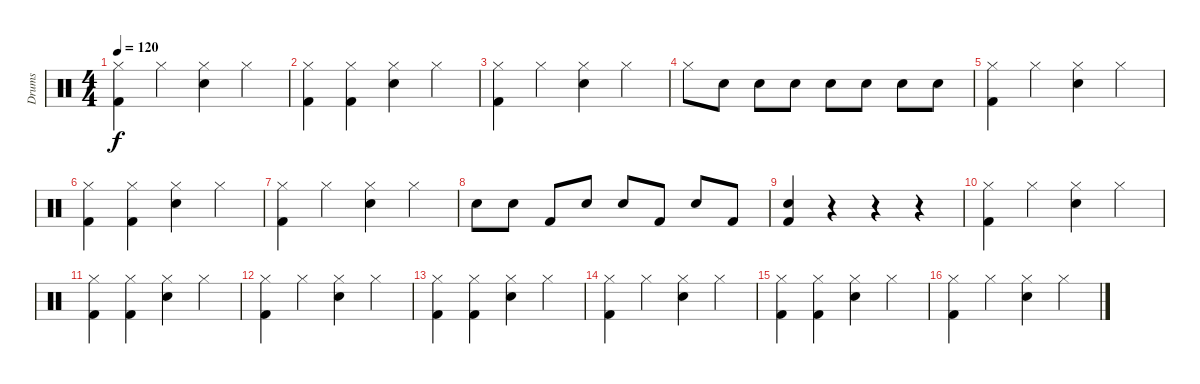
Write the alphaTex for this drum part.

\track ("Drums" "Drums") {instrument percussion}
\staff {score}
\articulation defaults
\ts (4 4)
\tempo 120
\clef neutral
\ks c
("Kick (hit) 2" "Hi-Hat (closed)").4{dy f} "Hi-Hat (closed)".4 ("Snare (hit) 2" "Hi-Hat (closed)").4 "Hi-Hat (closed)".4 |
("Kick (hit) 2" "Hi-Hat (closed)").4 ("Kick (hit) 2" "Hi-Hat (closed)").4 ("Snare (hit) 2" "Hi-Hat (closed)").4 "Hi-Hat (closed)".4 |
("Kick (hit) 2" "Hi-Hat (closed)").4 "Hi-Hat (closed)".4 ("Snare (hit) 2" "Hi-Hat (closed)").4 "Hi-Hat (closed)".4 |
"Hi-Hat (closed)".8 "Snare (hit) 2".8 "Snare (hit) 2".8 "Snare (hit) 2".8 "Snare (hit) 2".8 "Snare (hit) 2".8 "Snare (hit) 2".8 "Snare (hit) 2".8 |
("Kick (hit) 2" "Hi-Hat (closed)").4 "Hi-Hat (closed)".4 ("Snare (hit) 2" "Hi-Hat (closed)").4 "Hi-Hat (closed)".4 |
("Kick (hit) 2" "Hi-Hat (closed)").4 ("Kick (hit) 2" "Hi-Hat (closed)").4 ("Snare (hit) 2" "Hi-Hat (closed)").4 "Hi-Hat (closed)".4 |
("Kick (hit) 2" "Hi-Hat (closed)").4 "Hi-Hat (closed)".4 ("Snare (hit) 2" "Hi-Hat (closed)").4 "Hi-Hat (closed)".4 |
"Snare (hit) 2".8 "Snare (hit) 2".8 "Kick (hit) 2".8 "Snare (hit) 2".8 "Snare (hit) 2".8 "Kick (hit) 2".8 "Snare (hit) 2".8 "Kick (hit) 2".8 |
("Snare (hit) 2" "Kick (hit) 2").4 r.4 r.4 r.4 |
("Kick (hit) 2" "Hi-Hat (closed)").4 "Hi-Hat (closed)".4 ("Snare (hit) 2" "Hi-Hat (closed)").4 "Hi-Hat (closed)".4 |
("Kick (hit) 2" "Hi-Hat (closed)").4 ("Kick (hit) 2" "Hi-Hat (closed)").4 ("Snare (hit) 2" "Hi-Hat (closed)").4 "Hi-Hat (closed)".4 |
("Kick (hit) 2" "Hi-Hat (closed)").4 "Hi-Hat (closed)".4 ("Snare (hit) 2" "Hi-Hat (closed)").4 "Hi-Hat (closed)".4 |
("Kick (hit) 2" "Hi-Hat (closed)").4 ("Kick (hit) 2" "Hi-Hat (closed)").4 ("Snare (hit) 2" "Hi-Hat (closed)").4 "Hi-Hat (closed)".4 |
("Kick (hit) 2" "Hi-Hat (closed)").4 "Hi-Hat (closed)".4 ("Snare (hit) 2" "Hi-Hat (closed)").4 "Hi-Hat (closed)".4 |
("Kick (hit) 2" "Hi-Hat (closed)").4 ("Kick (hit) 2" "Hi-Hat (closed)").4 ("Snare (hit) 2" "Hi-Hat (closed)").4 "Hi-Hat (closed)".4 |
("Kick (hit) 2" "Hi-Hat (closed)").4 "Hi-Hat (closed)".4 ("Snare (hit) 2" "Hi-Hat (closed)").4 "Hi-Hat (closed)".4
